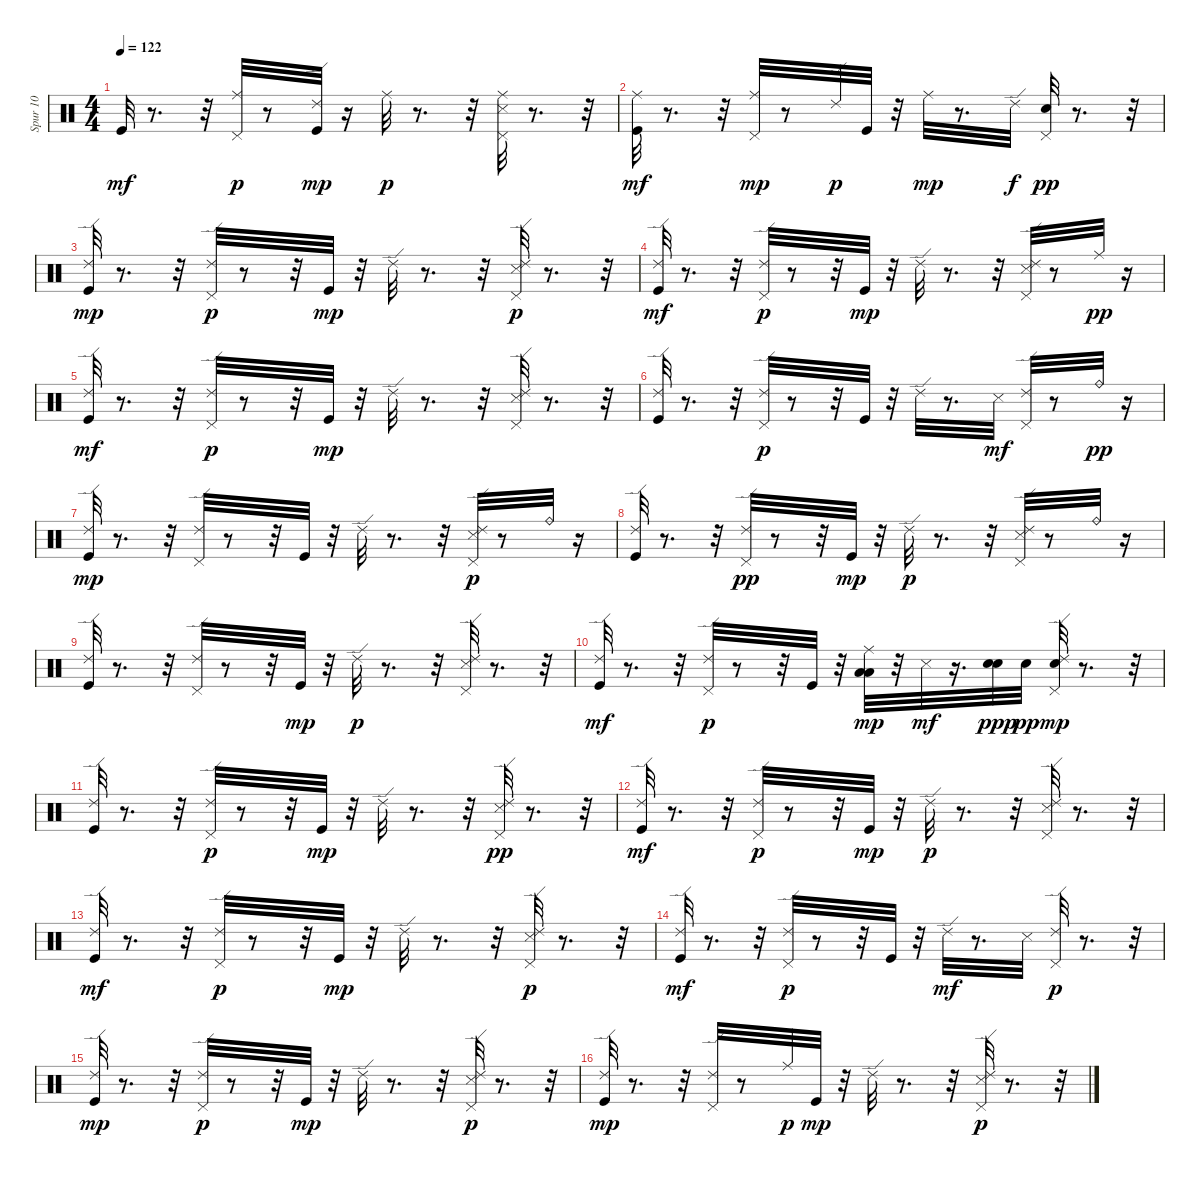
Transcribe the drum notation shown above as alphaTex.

\track ("Spur 10" "Spur 10") {instrument percussion}
\staff {score}
\articulation defaults
\ts (4 4)
\tempo 122
\clef neutral
\ks c "Kick (hit)".32{dy mf}
r.8{d} r.32 ("Ride (middle)" "Pedal Hi-Hat (hit)").32{dy p} r.8 ("Ride (edge) 2" "Kick (hit)").32{dy mp} r.16 "Ride (middle)".32{dy p} r.8{d} r.32 ("Snare (side stick) 3" "Ride (middle)" "Pedal Hi-Hat (hit)").32 r.8{d} r.32 |
("Ride (middle)" "Kick (hit)").32{dy mf} r.8{d} r.32 ("Ride (middle)" "Pedal Hi-Hat (hit)").32{dy mp} r.8 "Ride (edge) 2".32{dy p} "Kick (hit)".32 r.32 "Ride (middle)".32{dy mp} r.8{d} "Ride (edge) 2".32{dy f} ("Electric Snare (hit)" "Pedal Hi-Hat (hit)").32{dy pp} r.8{d} r.32 |
("Kick (hit)" "Ride (edge) 2").32{dy mp} r.8{d} r.32 ("Pedal Hi-Hat (hit)" "Ride (edge) 2").32{dy p} r.8 r.32 "Kick (hit)".32{dy mp} r.32 "Ride (edge) 2".32 r.8{d} r.32 ("Snare (side stick) 3" "Pedal Hi-Hat (hit)" "Ride (edge) 2").32{dy p} r.8{d} r.32 |
("Ride (edge) 2" "Kick (hit)").32{dy mf} r.8{d} r.32 ("Pedal Hi-Hat (hit)" "Ride (edge) 2").32{dy p} r.8 r.32 "Kick (hit)".32{dy mp} r.32 "Ride (edge) 2".32 r.8{d} r.32 ("Snare (side stick) 3" "Pedal Hi-Hat (hit)" "Ride (edge) 2").32 r.8 "Ride (middle)".32{dy pp} r.16 |
("Ride (edge) 2" "Kick (hit)").32{dy mf} r.8{d} r.32 ("Pedal Hi-Hat (hit)" "Ride (edge) 2").32{dy p} r.8 r.32 "Kick (hit)".32{dy mp} r.32 "Ride (edge) 2".32 r.8{d} r.32 ("Ride (edge) 2" "Pedal Hi-Hat (hit)" "Snare (side stick) 3").32 r.8{d} r.32 |
("Kick (hit)" "Ride (edge) 2").32 r.8{d} r.32 ("Pedal Hi-Hat (hit)" "Ride (edge) 2").32{dy p} r.8 r.32 "Kick (hit)".32 r.32 "Ride (edge) 2".32 r.8{d} "Snare (side stick) 3".32{dy mf} ("Pedal Hi-Hat (hit)" "Ride (edge) 2").32 r.8 "Ride (bell)".32{dy pp} r.16 |
("Kick (hit)" "Ride (edge) 2").32{dy mp} r.8{d} r.32 ("Pedal Hi-Hat (hit)" "Ride (edge) 2").32 r.8 r.32 "Kick (hit)".32 r.32 "Ride (edge) 2".32 r.8{d} r.32 ("Snare (side stick) 3" "Pedal Hi-Hat (hit)" "Ride (edge) 2").32{dy p} r.8 "Ride (bell)".32 r.16 |
("Kick (hit)" "Ride (edge) 2").32 r.8{d} r.32 ("Pedal Hi-Hat (hit)" "Ride (edge) 2").32{dy pp} r.8 r.32 "Kick (hit)".32{dy mp} r.32 "Ride (edge) 2".32{dy p} r.8{d} r.32 ("Snare (side stick) 3" "Pedal Hi-Hat (hit)" "Ride (edge) 2").32 r.8 "Ride (bell)".32 r.16 |
("Kick (hit)" "Ride (edge) 2").32 r.8{d} r.32 ("Pedal Hi-Hat (hit)" "Ride (edge) 2").32 r.8 r.32 "Kick (hit)".32{dy mp} r.32 "Ride (edge) 2".32{dy p} r.8{d} r.32 ("Pedal Hi-Hat (hit)" "Snare (side stick) 3" "Ride (edge) 2").32 r.8{d} r.32 |
("Ride (edge) 2" "Kick (hit)").32{dy mf} r.8{d} r.32 ("Pedal Hi-Hat (hit)" "Ride (edge) 2").32{dy p} r.8 r.32 "Kick (hit)".32 r.32 ("Low Tom (hit)" "Ride (middle)" "Low Floor Tom (hit)").32{dy mp} r.32 "Snare (side stick) 3".32{dy mf} r.16{d} ("Electric Snare (hit)" "Electric Snare (hit)").32{dy ppp} "Electric Snare (hit)".32{dy pp} ("Pedal Hi-Hat (hit)" "Ride (edge) 2" "Electric Snare (hit)").32{dy mp} r.8{d} r.32 |
("Kick (hit)" "Ride (edge) 2").32 r.8{d} r.32 ("Pedal Hi-Hat (hit)" "Ride (edge) 2").32{dy p} r.8 r.32 "Kick (hit)".32{dy mp} r.32 "Ride (edge) 2".32 r.8{d} r.32 ("Snare (side stick) 3" "Pedal Hi-Hat (hit)" "Ride (edge) 2").32{dy pp} r.8{d} r.32 |
("Ride (edge) 2" "Kick (hit)").32{dy mf} r.8{d} r.32 ("Ride (edge) 2" "Pedal Hi-Hat (hit)").32{dy p} r.8 r.32 "Kick (hit)".32{dy mp} r.32 "Ride (edge) 2".32{dy p} r.8{d} r.32 ("Snare (side stick) 3" "Pedal Hi-Hat (hit)" "Ride (edge) 2").32 r.8{d} r.32 |
("Kick (hit)" "Ride (edge) 2").32{dy mf} r.8{d} r.32 ("Pedal Hi-Hat (hit)" "Ride (edge) 2").32{dy p} r.8 r.32 "Kick (hit)".32{dy mp} r.32 "Ride (edge) 2".32 r.8{d} r.32 ("Pedal Hi-Hat (hit)" "Snare (side stick) 3" "Ride (edge) 2").32{dy p} r.8{d} r.32 |
("Kick (hit)" "Ride (edge) 2").32{dy mf} r.8{d} r.32 ("Pedal Hi-Hat (hit)" "Ride (edge) 2").32{dy p} r.8 r.32 "Kick (hit)".32 r.32 "Ride (edge) 2".32{dy mf} r.8{d} "Snare (side stick) 3".32 ("Pedal Hi-Hat (hit)" "Ride (edge) 2").32{dy p} r.8{d} r.32 |
("Kick (hit)" "Ride (edge) 2").32{dy mp} r.8{d} r.32 ("Ride (edge) 2" "Pedal Hi-Hat (hit)").32{dy p} r.8 r.32 "Kick (hit)".32{dy mp} r.32 "Ride (edge) 2".32 r.8{d} r.32 ("Snare (side stick) 3" "Pedal Hi-Hat (hit)" "Ride (edge) 2").32{dy p} r.8{d} r.32 |
("Kick (hit)" "Ride (edge) 2").32{dy mp} r.8{d} r.32 ("Pedal Hi-Hat (hit)" "Ride (edge) 2").32 r.8 "Ride (middle)".32{dy p} "Kick (hit)".32{dy mp} r.32 "Ride (edge) 2".32 r.8{d} r.32 ("Snare (side stick) 3" "Pedal Hi-Hat (hit)" "Ride (edge) 2").32{dy p} r.8{d} r.32
